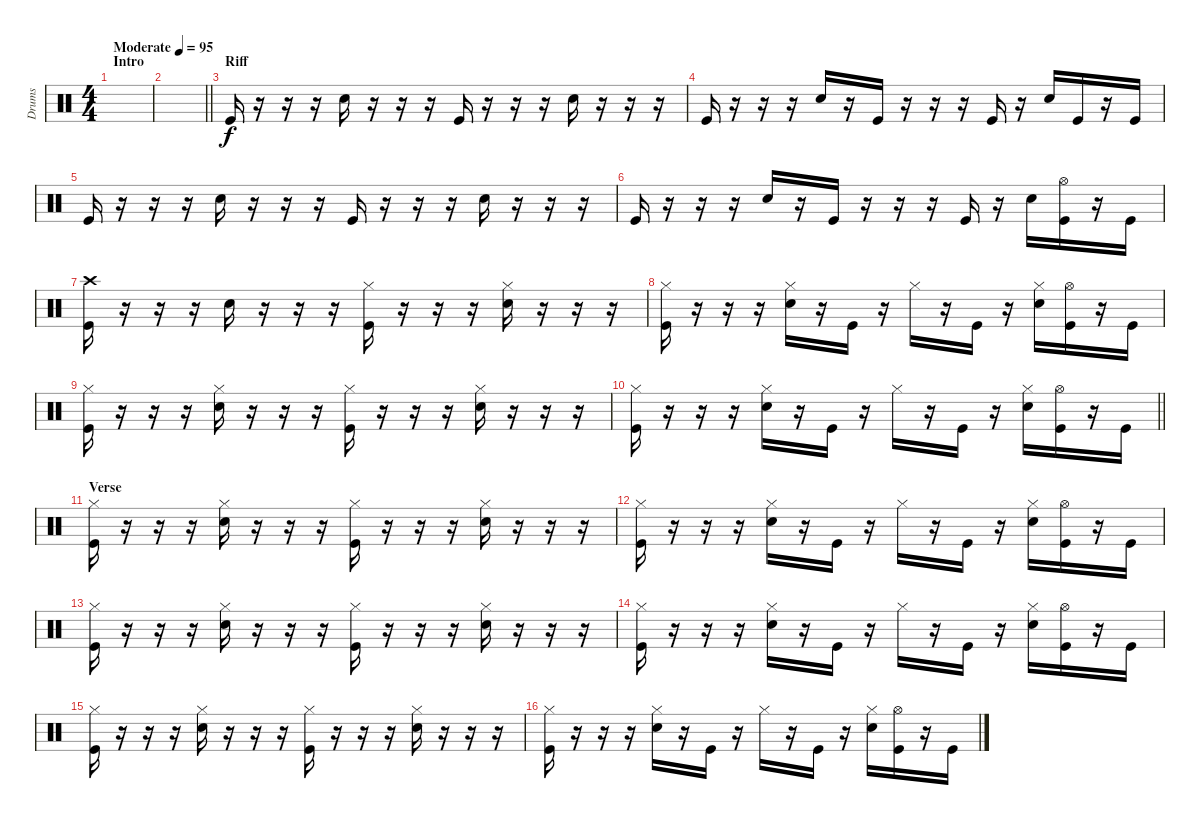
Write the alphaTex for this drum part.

\track ("Drums" "Drums") {instrument percussion bank 177}
\staff {score}
\articulation defaults
\ts (4 4)
\section ("" "Intro")
\tempo (95 "Moderate")
\clef neutral
\ks c
|
\barLineRight lightlight
|
\section ("" "Riff")
"Kick (hit)".16 r.16 r.16 r.16 "Snare (hit) 2".16 r.16 r.16 r.16 "Kick (hit)".16 r.16 r.16 r.16 "Snare (hit) 2".16 r.16 r.16 r.16 |
"Kick (hit)".16 r.16 r.16 r.16 "Snare (hit) 2".16 r.16 "Kick (hit)".16 r.16 r.16 r.16 "Kick (hit)".16 r.16 "Snare (hit) 2".16 "Kick (hit)".16 r.16 "Kick (hit)".16 |
"Kick (hit)".16 r.16 r.16 r.16 "Snare (hit) 2".16 r.16 r.16 r.16 "Kick (hit)".16 r.16 r.16 r.16 "Snare (hit) 2".16 r.16 r.16 r.16 |
"Kick (hit)".16 r.16 r.16 r.16 "Snare (hit) 2".16 r.16 "Kick (hit)".16 r.16 r.16 r.16 "Kick (hit)".16 r.16 "Snare (hit) 2".16 ("Hi-Hat (open)" "Kick (hit)").16 r.16 "Kick (hit)".16 |
("Crash high (hit)" "Kick (hit)").16 r.16 r.16 r.16 "Snare (hit) 2".16 r.16 r.16 r.16 ("Hi-Hat (closed)" "Kick (hit)").16 r.16 r.16 r.16 ("Hi-Hat (closed)" "Snare (hit) 2").16 r.16 r.16 r.16 |
("Hi-Hat (closed)" "Kick (hit)").16 r.16 r.16 r.16 ("Hi-Hat (closed)" "Snare (hit) 2").16 r.16 "Kick (hit)".16 r.16 "Hi-Hat (closed)".16 r.16 "Kick (hit)".16 r.16 ("Hi-Hat (closed)" "Snare (hit) 2").16 ("Hi-Hat (open)" "Kick (hit)").16 r.16 "Kick (hit)".16 |
("Hi-Hat (closed)" "Kick (hit)").16 r.16 r.16 r.16 ("Hi-Hat (closed)" "Snare (hit) 2").16 r.16 r.16 r.16 ("Hi-Hat (closed)" "Kick (hit)").16 r.16 r.16 r.16 ("Hi-Hat (closed)" "Snare (hit) 2").16 r.16 r.16 r.16 |
\barLineRight lightlight
("Hi-Hat (closed)" "Kick (hit)").16 r.16 r.16 r.16 ("Hi-Hat (closed)" "Snare (hit) 2").16 r.16 "Kick (hit)".16 r.16 "Hi-Hat (closed)".16 r.16 "Kick (hit)".16 r.16 ("Hi-Hat (closed)" "Snare (hit) 2").16 ("Hi-Hat (open)" "Kick (hit)").16 r.16 "Kick (hit)".16 |
\section ("" "Verse")
("Hi-Hat (closed)" "Kick (hit)").16 r.16 r.16 r.16 ("Hi-Hat (closed)" "Snare (hit) 2").16 r.16 r.16 r.16 ("Hi-Hat (closed)" "Kick (hit)").16 r.16 r.16 r.16 ("Hi-Hat (closed)" "Snare (hit) 2").16 r.16 r.16 r.16 |
("Hi-Hat (closed)" "Kick (hit)").16 r.16 r.16 r.16 ("Hi-Hat (closed)" "Snare (hit) 2").16 r.16 "Kick (hit)".16 r.16 "Hi-Hat (closed)".16 r.16 "Kick (hit)".16 r.16 ("Hi-Hat (closed)" "Snare (hit) 2").16 ("Hi-Hat (open)" "Kick (hit)").16 r.16 "Kick (hit)".16 |
("Hi-Hat (closed)" "Kick (hit)").16 r.16 r.16 r.16 ("Hi-Hat (closed)" "Snare (hit) 2").16 r.16 r.16 r.16 ("Hi-Hat (closed)" "Kick (hit)").16 r.16 r.16 r.16 ("Hi-Hat (closed)" "Snare (hit) 2").16 r.16 r.16 r.16 |
("Hi-Hat (closed)" "Kick (hit)").16 r.16 r.16 r.16 ("Hi-Hat (closed)" "Snare (hit) 2").16 r.16 "Kick (hit)".16 r.16 "Hi-Hat (closed)".16 r.16 "Kick (hit)".16 r.16 ("Hi-Hat (closed)" "Snare (hit) 2").16 ("Hi-Hat (open)" "Kick (hit)").16 r.16 "Kick (hit)".16 |
("Hi-Hat (closed)" "Kick (hit)").16 r.16 r.16 r.16 ("Hi-Hat (closed)" "Snare (hit) 2").16 r.16 r.16 r.16 ("Hi-Hat (closed)" "Kick (hit)").16 r.16 r.16 r.16 ("Hi-Hat (closed)" "Snare (hit) 2").16 r.16 r.16 r.16 |
("Hi-Hat (closed)" "Kick (hit)").16 r.16 r.16 r.16 ("Hi-Hat (closed)" "Snare (hit) 2").16 r.16 "Kick (hit)".16 r.16 "Hi-Hat (closed)".16 r.16 "Kick (hit)".16 r.16 ("Hi-Hat (closed)" "Snare (hit) 2").16 ("Hi-Hat (open)" "Kick (hit)").16 r.16 "Kick (hit)".16
